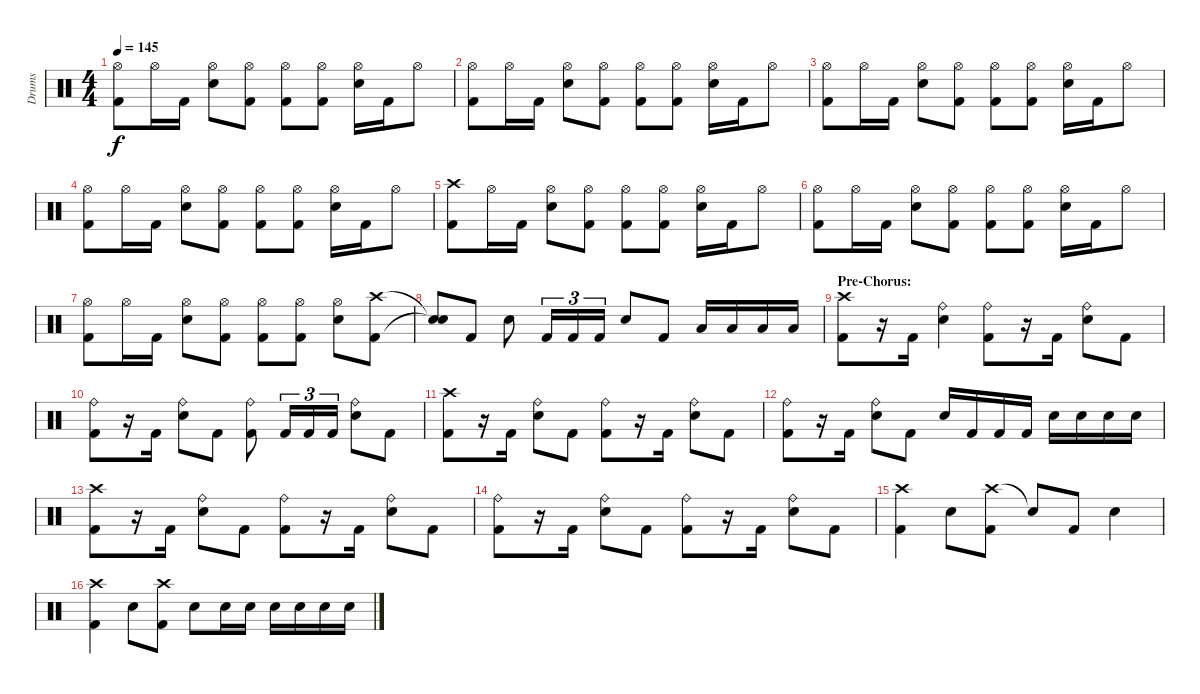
\track ("Drums" "Drums") {instrument percussion}
\staff {score}
\articulation defaults
\ts (4 4)
\tempo 145
\clef neutral
\ks c
("Hi-Hat (open)" "Kick (hit) 2").8{dy f} "Hi-Hat (open)".16 "Kick (hit) 2".16 ("Hi-Hat (open)" "Snare (hit) 2").8 ("Hi-Hat (open)" "Kick (hit) 2").8 ("Hi-Hat (open)" "Kick (hit) 2").8 ("Hi-Hat (open)" "Kick (hit) 2").8 ("Hi-Hat (open)" "Snare (hit) 2").16 "Kick (hit) 2".16 "Hi-Hat (open)".8 |
("Hi-Hat (open)" "Kick (hit) 2").8 "Hi-Hat (open)".16 "Kick (hit) 2".16 ("Hi-Hat (open)" "Snare (hit) 2").8 ("Hi-Hat (open)" "Kick (hit) 2").8 ("Hi-Hat (open)" "Kick (hit) 2").8 ("Hi-Hat (open)" "Kick (hit) 2").8 ("Hi-Hat (open)" "Snare (hit) 2").16 "Kick (hit) 2".16 "Hi-Hat (open)".8 |
("Hi-Hat (open)" "Kick (hit) 2").8 "Hi-Hat (open)".16 "Kick (hit) 2".16 ("Hi-Hat (open)" "Snare (hit) 2").8 ("Hi-Hat (open)" "Kick (hit) 2").8 ("Hi-Hat (open)" "Kick (hit) 2").8 ("Hi-Hat (open)" "Kick (hit) 2").8 ("Hi-Hat (open)" "Snare (hit) 2").16 "Kick (hit) 2".16 "Hi-Hat (open)".8 |
("Hi-Hat (open)" "Kick (hit) 2").8 "Hi-Hat (open)".16 "Kick (hit) 2".16 ("Hi-Hat (open)" "Snare (hit) 2").8 ("Hi-Hat (open)" "Kick (hit) 2").8 ("Hi-Hat (open)" "Kick (hit) 2").8 ("Hi-Hat (open)" "Kick (hit) 2").8 ("Hi-Hat (open)" "Snare (hit) 2").16 "Kick (hit) 2".16 "Hi-Hat (open)".8 |
("Crash high (hit)" "Kick (hit) 2").8 "Hi-Hat (open)".16 "Kick (hit) 2".16 ("Hi-Hat (open)" "Snare (hit) 2").8 ("Hi-Hat (open)" "Kick (hit) 2").8 ("Hi-Hat (open)" "Kick (hit) 2").8 ("Hi-Hat (open)" "Kick (hit) 2").8 ("Hi-Hat (open)" "Snare (hit) 2").16 "Kick (hit) 2".16 "Hi-Hat (open)".8 |
("Hi-Hat (open)" "Kick (hit) 2").8 "Hi-Hat (open)".16 "Kick (hit) 2".16 ("Hi-Hat (open)" "Snare (hit) 2").8 ("Hi-Hat (open)" "Kick (hit) 2").8 ("Hi-Hat (open)" "Kick (hit) 2").8 ("Hi-Hat (open)" "Kick (hit) 2").8 ("Hi-Hat (open)" "Snare (hit) 2").16 "Kick (hit) 2".16 "Hi-Hat (open)".8 |
("Hi-Hat (open)" "Kick (hit) 2").8 "Hi-Hat (open)".16 "Kick (hit) 2".16 ("Hi-Hat (open)" "Snare (hit) 2").8 ("Hi-Hat (open)" "Kick (hit) 2").8 ("Hi-Hat (open)" "Kick (hit) 2").8 ("Hi-Hat (open)" "Kick (hit) 2").8 ("Hi-Hat (open)" "Snare (hit) 2").8 ("Crash high (hit)" "Kick (hit) 2").8 |
("Snare (hit)"{t} "Snare (hit)"{t}).8 "Kick (hit) 2".8 "Snare (hit) 2".8 "Kick (hit) 2".16{tu (3 2)} "Kick (hit) 2".16{tu (3 2)} "Kick (hit) 2".16{tu (3 2)} "Snare (hit) 2".8 "Kick (hit) 2".8 "Low Floor Tom (hit)".16 "Low Floor Tom (hit)".16 "Low Floor Tom (hit)".16 "Low Floor Tom (hit)".16 |
\section ("" "Pre-Chorus:")
("Crash high (hit)" "Kick (hit) 2").8 r.16 "Kick (hit) 2".16 ("Ride (bell)" "Snare (hit) 2").4 ("Ride (bell)" "Kick (hit) 2").8 r.16 "Kick (hit) 2".16 ("Ride (bell)" "Snare (hit) 2").8 "Kick (hit) 2".8 |
("Ride (bell)" "Kick (hit) 2").8 r.16 "Kick (hit) 2".16 ("Ride (bell)" "Snare (hit) 2").8 "Kick (hit) 2".8 ("Ride (bell)" "Kick (hit) 2").8 "Kick (hit) 2".16{tu (3 2)} "Kick (hit) 2".16{tu (3 2)} "Kick (hit) 2".16{tu (3 2)} ("Ride (bell)" "Snare (hit) 2").8 "Kick (hit) 2".8 |
("Crash high (hit)" "Kick (hit) 2").8 r.16 "Kick (hit) 2".16 ("Ride (bell)" "Snare (hit) 2").8 "Kick (hit) 2".8 ("Ride (bell)" "Kick (hit) 2").8 r.16 "Kick (hit) 2".16 ("Ride (bell)" "Snare (hit) 2").8 "Kick (hit) 2".8 |
("Ride (bell)" "Kick (hit) 2").8 r.16 "Kick (hit) 2".16 ("Ride (bell)" "Snare (hit) 2").8 "Kick (hit) 2".8 "Snare (hit) 2".16 "Kick (hit) 2".16 "Kick (hit) 2".16 "Kick (hit) 2".16 "Snare (hit) 2".16 "Snare (hit) 2".16 "Snare (hit) 2".16 "Snare (hit) 2".16 |
("Crash high (hit)" "Kick (hit) 2").8 r.16 "Kick (hit) 2".16 ("Ride (bell)" "Snare (hit) 2").8 "Kick (hit) 2".8 ("Ride (bell)" "Kick (hit) 2").8 r.16 "Kick (hit) 2".16 ("Ride (bell)" "Snare (hit) 2").8 "Kick (hit) 2".8 |
("Ride (bell)" "Kick (hit) 2").8 r.16 "Kick (hit) 2".16 ("Ride (bell)" "Snare (hit) 2").8 "Kick (hit) 2".8 ("Ride (bell)" "Kick (hit) 2").8 r.16 "Kick (hit) 2".16 ("Ride (bell)" "Snare (hit) 2").8 "Kick (hit) 2".8 |
("Crash high (hit)" "Kick (hit) 2").4 "Snare (hit) 2".8 ("Crash high (hit)" "Kick (hit) 2").8 "Snare (hit)"{t}.8 "Kick (hit) 2".8 "Snare (hit) 2".4 |
("Crash high (hit)" "Kick (hit) 2").4 "Snare (hit) 2".8 ("Crash high (hit)" "Kick (hit) 2").8 "Snare (hit) 2".8 "Snare (hit) 2".16 "Snare (hit) 2".16 "Snare (hit) 2".16 "Snare (hit) 2".16 "Snare (hit) 2".16 "Snare (hit) 2".16
